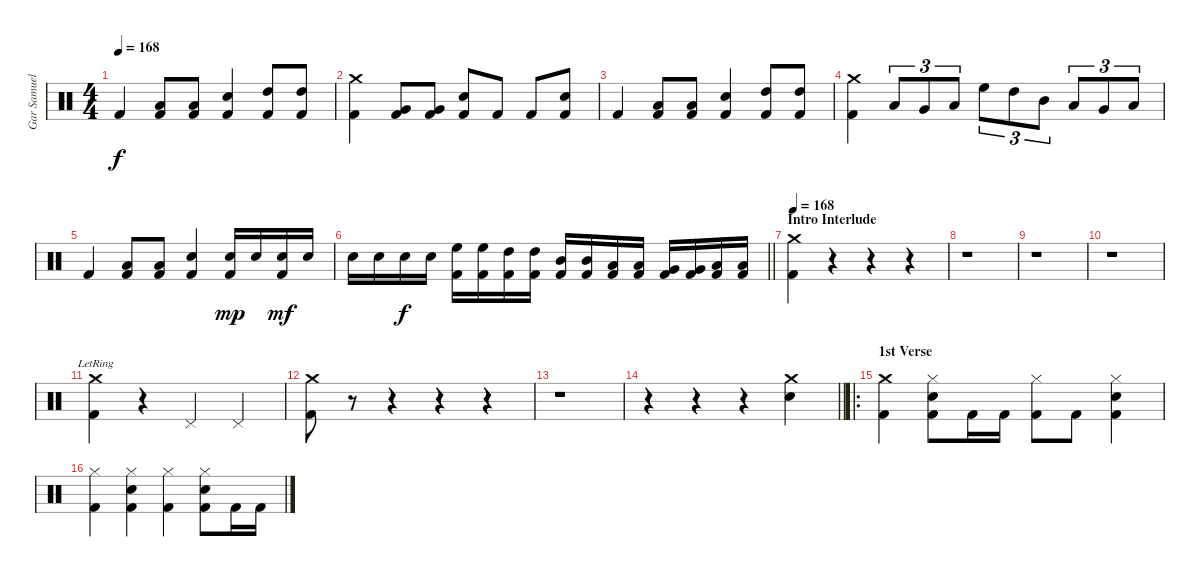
\track ("Gar Samuelson" "Gar Samuel") {instrument percussion}
\staff {score}
\articulation defaults
\ts (4 4)
\tempo 168
\clef neutral
\ks c "Kick (hit) 2".4{dy f}
("Low Tom (hit)" "Kick (hit) 2").8 ("Low Tom (hit)" "Kick (hit) 2").8 ("Snare (hit) 2" "Kick (hit) 2").4 ("High Tom (hit)" "Kick (hit) 2").8 ("High Tom (hit)" "Kick (hit) 2").8 |
("Crash medium (hit)" "Kick (hit) 2").4 ("Very Low Tom (hit)" "Kick (hit) 2").8 ("Very Low Tom (hit)" "Kick (hit) 2").8 ("Snare (hit) 2" "Kick (hit) 2").8 "Kick (hit) 2".8 "Kick (hit) 2".8 ("Snare (hit) 2" "Kick (hit) 2").8 |
"Kick (hit) 2".4 ("Low Tom (hit)" "Kick (hit) 2").8 ("Low Tom (hit)" "Kick (hit) 2").8 ("Snare (hit) 2" "Kick (hit) 2").4 ("High Tom (hit)" "Kick (hit) 2").8 ("High Tom (hit)" "Kick (hit) 2").8 |
("Crash medium (hit)" "Kick (hit) 2").4 "Low Tom (hit)".8{tu (3 2)} "Very Low Tom (hit)".8{tu (3 2)} "Low Floor Tom (hit)".8{tu (3 2)} "High Floor Tom (hit)".8{tu (3 2)} "High Tom (hit)".8{tu (3 2)} "Mid Tom (hit)".8{tu (3 2)} "Low Tom (hit)".8{tu (3 2)} "Very Low Tom (hit)".8{tu (3 2)} "Low Floor Tom (hit)".8{tu (3 2)} |
"Kick (hit) 2".4 ("Low Tom (hit)" "Kick (hit) 2").8 ("Low Tom (hit)" "Kick (hit) 2").8 ("Snare (hit) 2" "Kick (hit) 2").4 ("Snare (hit) 2" "Kick (hit) 2").16{dy mp} "Snare (hit) 2".16 ("Snare (hit) 2" "Kick (hit) 2").16{dy mf} "Snare (hit) 2".16 |
\barLineRight lightlight "Snare (hit) 2".16 "Snare (hit) 2".16 "Snare (hit) 2".16{dy f} "Snare (hit) 2".16
("High Floor Tom (hit)" "Kick (hit) 2").16 ("High Floor Tom (hit)" "Kick (hit) 2").16 ("High Tom (hit)" "Kick (hit) 2").16 ("High Tom (hit)" "Kick (hit) 2").16 ("Mid Tom (hit)" "Kick (hit) 2").16 ("Mid Tom (hit)" "Kick (hit) 2").16 ("Low Tom (hit)" "Kick (hit) 2").16 ("Low Tom (hit)" "Kick (hit) 2").16 ("Very Low Tom (hit)" "Kick (hit) 2").16 ("Very Low Tom (hit)" "Kick (hit) 2").16 ("Low Floor Tom (hit)" "Kick (hit) 2").16 ("Low Floor Tom (hit)" "Kick (hit) 2").16 |
\section ("" "Intro Interlude")
\tempo 168
("Crash medium (hit)" "Kick (hit) 2").4{volume 0} r.4{volume 13} r.4 r.4 |
r.1 |
r.1 |
r.1{volume 13} |
("Crash medium (hit)"{lr} "Kick (hit) 2").4 r.4 "Pedal Hi-Hat (hit)".4 "Pedal Hi-Hat (hit)".4 |
("Crash medium (hit)" "Kick (hit) 2").8{volume 0} r.8{volume 13} r.4 r.4 r.4 |
r.1 |
\barLineRight lightlight
r.4 r.4 r.4 ("Crash medium (hit)" "Snare (hit) 2").4{volume 13} |
\ro
\section ("" "1st Verse")
("Crash medium (hit)" "Kick (hit) 2").4 ("Hi-Hat (closed)" "Snare (hit) 2" "Kick (hit) 2").8 "Kick (hit) 2".16 "Kick (hit) 2".16 ("Hi-Hat (closed)" "Kick (hit) 2").8 "Kick (hit) 2".8 ("Hi-Hat (closed)" "Snare (hit) 2" "Kick (hit) 2").4 |
("Hi-Hat (closed)" "Kick (hit) 2").4 ("Hi-Hat (closed)" "Snare (hit) 2" "Kick (hit) 2").4 ("Hi-Hat (closed)" "Kick (hit) 2").4 ("Hi-Hat (closed)" "Snare (hit) 2" "Kick (hit) 2").8 "Kick (hit) 2".16 "Kick (hit) 2".16
